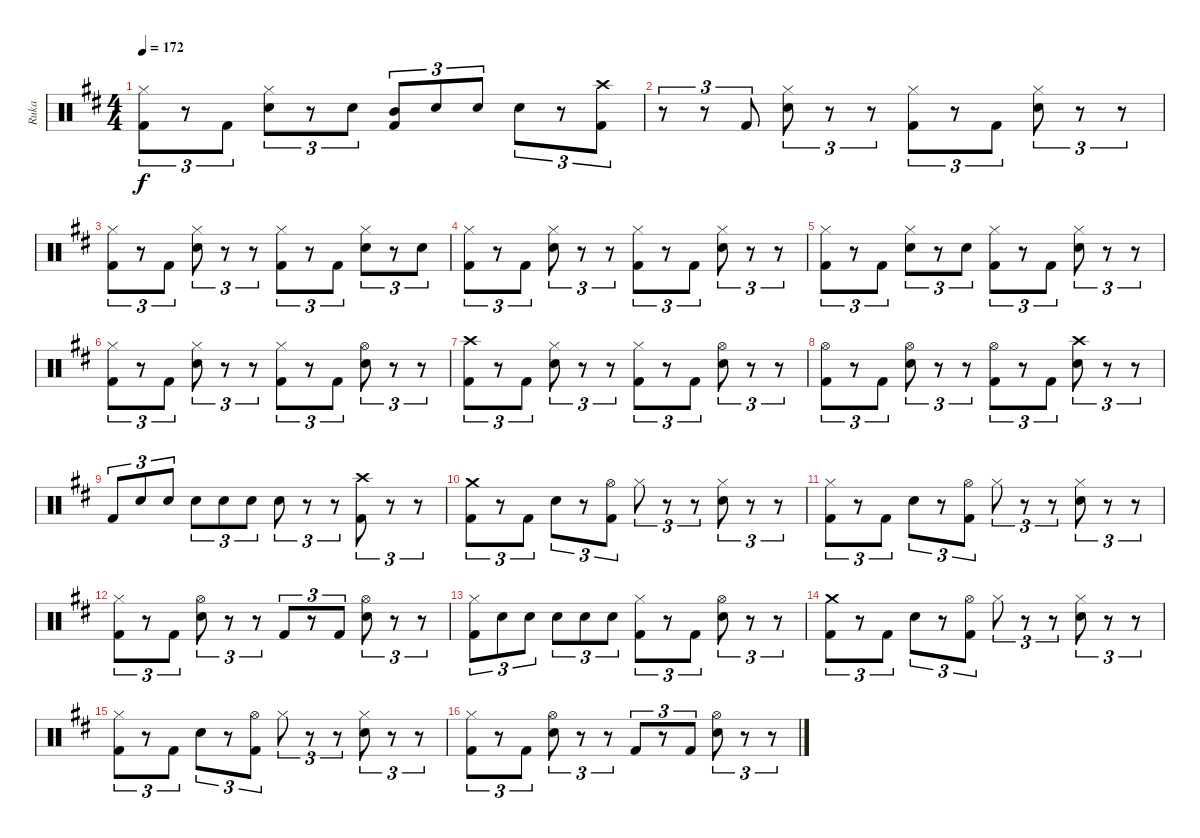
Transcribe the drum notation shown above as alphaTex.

\track ("Ruka" "Ruka") {instrument percussion}
\staff {score}
\articulation defaults
\ts (4 4)
\tempo 172
\clef neutral
\ks bminor
("Kick (hit) 2" "Hi-Hat (closed)").8{tu (3 2) dy f} r.8{tu (3 2)} "Kick (hit) 2".8{tu (3 2)} ("Electric Snare (hit)" "Hi-Hat (closed)").8{tu (3 2)} r.8{tu (3 2)} "Electric Snare (hit)".8{tu (3 2)} ("Kick (hit) 2" "Mid Tom (hit)").8{tu (3 2)} "Electric Snare (hit)".8{tu (3 2)} "Electric Snare (hit)".8{tu (3 2)} "Electric Snare (hit)".8{tu (3 2)} r.8{tu (3 2)} ("Kick (hit) 2" "Crash high (hit)").8{tu (3 2)} |
r.8{tu (3 2)} r.8{tu (3 2)} "Kick (hit) 2".8{tu (3 2)} ("Electric Snare (hit)" "Hi-Hat (closed)").8{tu (3 2)} r.8{tu (3 2)} r.8{tu (3 2)} ("Kick (hit) 2" "Hi-Hat (closed)").8{tu (3 2)} r.8{tu (3 2)} "Kick (hit) 2".8{tu (3 2)} ("Electric Snare (hit)" "Hi-Hat (closed)").8{tu (3 2)} r.8{tu (3 2)} r.8{tu (3 2)} |
("Kick (hit) 2" "Hi-Hat (closed)").8{tu (3 2)} r.8{tu (3 2)} "Kick (hit) 2".8{tu (3 2)} ("Electric Snare (hit)" "Hi-Hat (closed)").8{tu (3 2)} r.8{tu (3 2)} r.8{tu (3 2)} ("Kick (hit) 2" "Hi-Hat (closed)").8{tu (3 2)} r.8{tu (3 2)} "Kick (hit) 2".8{tu (3 2)} ("Electric Snare (hit)" "Hi-Hat (closed)").8{tu (3 2)} r.8{tu (3 2)} "Electric Snare (hit)".8{tu (3 2)} |
("Kick (hit) 2" "Hi-Hat (closed)").8{tu (3 2)} r.8{tu (3 2)} "Kick (hit) 2".8{tu (3 2)} ("Electric Snare (hit)" "Hi-Hat (closed)").8{tu (3 2)} r.8{tu (3 2)} r.8{tu (3 2)} ("Kick (hit) 2" "Hi-Hat (closed)").8{tu (3 2)} r.8{tu (3 2)} "Kick (hit) 2".8{tu (3 2)} ("Electric Snare (hit)" "Hi-Hat (closed)").8{tu (3 2)} r.8{tu (3 2)} r.8{tu (3 2)} |
("Kick (hit) 2" "Hi-Hat (closed)").8{tu (3 2)} r.8{tu (3 2)} "Kick (hit) 2".8{tu (3 2)} ("Electric Snare (hit)" "Hi-Hat (closed)").8{tu (3 2)} r.8{tu (3 2)} "Electric Snare (hit)".8{tu (3 2)} ("Kick (hit) 2" "Hi-Hat (closed)").8{tu (3 2)} r.8{tu (3 2)} "Kick (hit) 2".8{tu (3 2)} ("Electric Snare (hit)" "Hi-Hat (closed)").8{tu (3 2)} r.8{tu (3 2)} r.8{tu (3 2)} |
("Kick (hit) 2" "Hi-Hat (closed)").8{tu (3 2)} r.8{tu (3 2)} "Kick (hit) 2".8{tu (3 2)} ("Electric Snare (hit)" "Hi-Hat (closed)").8{tu (3 2)} r.8{tu (3 2)} r.8{tu (3 2)} ("Kick (hit) 2" "Hi-Hat (closed)").8{tu (3 2)} r.8{tu (3 2)} "Kick (hit) 2".8{tu (3 2)} ("Electric Snare (hit)" "Hi-Hat (open)").8{tu (3 2)} r.8{tu (3 2)} r.8{tu (3 2)} |
("Kick (hit) 2" "Crash high (hit)").8{tu (3 2)} r.8{tu (3 2)} "Kick (hit) 2".8{tu (3 2)} ("Electric Snare (hit)" "Hi-Hat (closed)").8{tu (3 2)} r.8{tu (3 2)} r.8{tu (3 2)} ("Kick (hit) 2" "Hi-Hat (closed)").8{tu (3 2)} r.8{tu (3 2)} "Kick (hit) 2".8{tu (3 2)} ("Electric Snare (hit)" "Hi-Hat (open)").8{tu (3 2)} r.8{tu (3 2)} r.8{tu (3 2)} |
("Kick (hit) 2" "Hi-Hat (open)").8{tu (3 2)} r.8{tu (3 2)} "Kick (hit) 2".8{tu (3 2)} ("Electric Snare (hit)" "Hi-Hat (open)").8{tu (3 2)} r.8{tu (3 2)} r.8{tu (3 2)} ("Kick (hit) 2" "Hi-Hat (open)").8{tu (3 2)} r.8{tu (3 2)} "Kick (hit) 2".8{tu (3 2)} ("Electric Snare (hit)" "Crash high (hit)").8{tu (3 2)} r.8{tu (3 2)} r.8{tu (3 2)} |
"Kick (hit) 2".8{tu (3 2)} "Electric Snare (hit)".8{tu (3 2)} "Electric Snare (hit)".8{tu (3 2)} "Electric Snare (hit)".8{tu (3 2)} "Electric Snare (hit)".8{tu (3 2)} "Electric Snare (hit)".8{tu (3 2)} "Electric Snare (hit)".8{tu (3 2)} r.8{tu (3 2)} r.8{tu (3 2)} ("Kick (hit) 2" "Crash high (hit)").8{tu (3 2)} r.8{tu (3 2)} r.8{tu (3 2)} |
("Kick (hit) 2" "Crash medium (hit)").8{tu (3 2)} r.8{tu (3 2)} "Kick (hit) 2".8{tu (3 2)} "Electric Snare (hit)".8{tu (3 2)} r.8{tu (3 2)} ("Kick (hit) 2" "Hi-Hat (open)").8{tu (3 2)} "Hi-Hat (closed)".8{tu (3 2)} r.8{tu (3 2)} r.8{tu (3 2)} ("Hi-Hat (closed)" "Electric Snare (hit)").8{tu (3 2)} r.8{tu (3 2)} r.8{tu (3 2)} |
("Kick (hit) 2" "Hi-Hat (closed)").8{tu (3 2)} r.8{tu (3 2)} "Kick (hit) 2".8{tu (3 2)} "Electric Snare (hit)".8{tu (3 2)} r.8{tu (3 2)} ("Kick (hit) 2" "Hi-Hat (open)").8{tu (3 2)} "Hi-Hat (closed)".8{tu (3 2)} r.8{tu (3 2)} r.8{tu (3 2)} ("Hi-Hat (closed)" "Electric Snare (hit)").8{tu (3 2)} r.8{tu (3 2)} r.8{tu (3 2)} |
("Kick (hit) 2" "Hi-Hat (closed)").8{tu (3 2)} r.8{tu (3 2)} "Kick (hit) 2".8{tu (3 2)} ("Hi-Hat (open)" "Electric Snare (hit)").8{tu (3 2)} r.8{tu (3 2)} r.8{tu (3 2)} "Kick (hit) 2".8{tu (3 2)} r.8{tu (3 2)} "Kick (hit) 2".8{tu (3 2)} ("Hi-Hat (open)" "Electric Snare (hit)").8{tu (3 2)} r.8{tu (3 2)} r.8{tu (3 2)} |
("Kick (hit) 2" "Hi-Hat (closed)").8{tu (3 2)} "Electric Snare (hit)".8{tu (3 2)} "Electric Snare (hit)".8{tu (3 2)} "Electric Snare (hit)".8{tu (3 2)} "Electric Snare (hit)".8{tu (3 2)} "Electric Snare (hit)".8{tu (3 2)} ("Hi-Hat (closed)" "Kick (hit) 2").8{tu (3 2)} r.8{tu (3 2)} "Kick (hit) 2".8{tu (3 2)} ("Hi-Hat (open)" "Electric Snare (hit)").8{tu (3 2)} r.8{tu (3 2)} r.8{tu (3 2)} |
("Kick (hit) 2" "Crash medium (hit)").8{tu (3 2)} r.8{tu (3 2)} "Kick (hit) 2".8{tu (3 2)} "Electric Snare (hit)".8{tu (3 2)} r.8{tu (3 2)} ("Kick (hit) 2" "Hi-Hat (open)").8{tu (3 2)} "Hi-Hat (closed)".8{tu (3 2)} r.8{tu (3 2)} r.8{tu (3 2)} ("Hi-Hat (closed)" "Electric Snare (hit)").8{tu (3 2)} r.8{tu (3 2)} r.8{tu (3 2)} |
("Kick (hit) 2" "Hi-Hat (closed)").8{tu (3 2)} r.8{tu (3 2)} "Kick (hit) 2".8{tu (3 2)} "Electric Snare (hit)".8{tu (3 2)} r.8{tu (3 2)} ("Kick (hit) 2" "Hi-Hat (open)").8{tu (3 2)} "Hi-Hat (closed)".8{tu (3 2)} r.8{tu (3 2)} r.8{tu (3 2)} ("Hi-Hat (closed)" "Electric Snare (hit)").8{tu (3 2)} r.8{tu (3 2)} r.8{tu (3 2)} |
("Kick (hit) 2" "Hi-Hat (closed)").8{tu (3 2)} r.8{tu (3 2)} "Kick (hit) 2".8{tu (3 2)} ("Hi-Hat (open)" "Electric Snare (hit)").8{tu (3 2)} r.8{tu (3 2)} r.8{tu (3 2)} "Kick (hit) 2".8{tu (3 2)} r.8{tu (3 2)} "Kick (hit) 2".8{tu (3 2)} ("Hi-Hat (open)" "Electric Snare (hit)").8{tu (3 2)} r.8{tu (3 2)} r.8{tu (3 2)}
